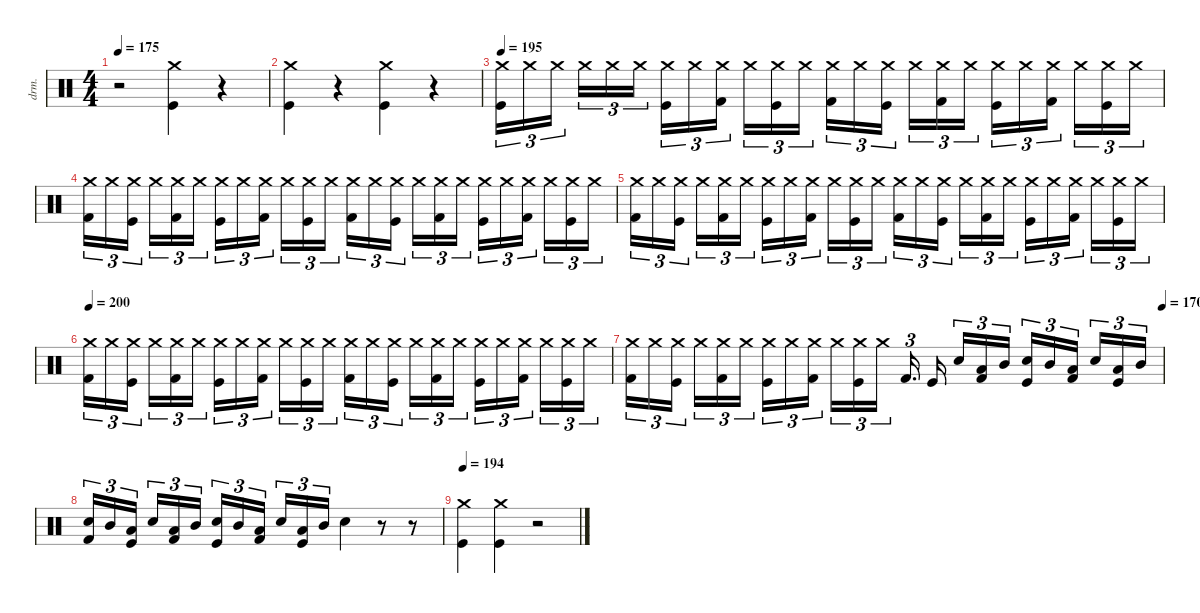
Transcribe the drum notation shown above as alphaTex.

\defaultSystemsLayout 4
\hideDynamics
\bracketExtendMode nobrackets
\otherSystemsTrackNameOrientation horizontal
\track ("Lars Ulrich (Drums)" "drm.") {instrument percussion}
\staff {score}
\articulation defaults
\ts (4 4)
\tempo 175
\clef neutral
\ks c
r.2{dy f beam Down} ("Kick (hit)" "Crash medium (hit)").4{beam Down} r.4{beam Down} |
("Crash medium (hit)" "Kick (hit)").4{beam Down} r.4{beam Down} ("Kick (hit)" "Crash medium (hit)").4{beam Down} r.4{beam Down} |
\tempo 195
("Kick (hit)" "Crash medium (hit)").16{tu (3 2) beam Down} "Crash medium (hit)".16{tu (3 2) beam Down} "Crash medium (hit)".16{tu (3 2) beam Down} "Crash medium (hit)".16{tu (3 2) beam Down} "Crash medium (hit)".16{tu (3 2) beam Down} "Crash medium (hit)".16{tu (3 2) beam Down} ("Kick (hit)" "Crash medium (hit)").16{tu (3 2) beam Down} "Crash medium (hit)".16{tu (3 2) beam Down} ("Kick (hit) 2" "Crash medium (hit)").16{tu (3 2) beam Down} "Crash medium (hit)".16{tu (3 2) beam Down} ("Kick (hit)" "Crash medium (hit)").16{tu (3 2) beam Down} "Crash medium (hit)".16{tu (3 2) beam Down} ("Kick (hit) 2" "Crash medium (hit)").16{tu (3 2) beam Down} "Crash medium (hit)".16{tu (3 2) beam Down} ("Kick (hit)" "Crash medium (hit)").16{tu (3 2) beam Down} "Crash medium (hit)".16{tu (3 2) beam Down} ("Kick (hit) 2" "Crash medium (hit)").16{tu (3 2) beam Down} "Crash medium (hit)".16{tu (3 2) beam Down} ("Kick (hit)" "Crash medium (hit)").16{tu (3 2) beam Down} "Crash medium (hit)".16{tu (3 2) beam Down} ("Kick (hit) 2" "Crash medium (hit)").16{tu (3 2) beam Down} "Crash medium (hit)".16{tu (3 2) beam Down} ("Kick (hit)" "Crash medium (hit)").16{tu (3 2) beam Down} "Crash medium (hit)".16{tu (3 2) beam Down} |
("Kick (hit) 2" "Crash medium (hit)").16{tu (3 2) beam Down} "Crash medium (hit)".16{tu (3 2) beam Down} ("Kick (hit)" "Crash medium (hit)").16{tu (3 2) beam Down} "Crash medium (hit)".16{tu (3 2) beam Down} ("Kick (hit) 2" "Crash medium (hit)").16{tu (3 2) beam Down} "Crash medium (hit)".16{tu (3 2) beam Down} ("Kick (hit)" "Crash medium (hit)").16{tu (3 2) beam Down} "Crash medium (hit)".16{tu (3 2) beam Down} ("Kick (hit) 2" "Crash medium (hit)").16{tu (3 2) beam Down} "Crash medium (hit)".16{tu (3 2) beam Down} ("Kick (hit)" "Crash medium (hit)").16{tu (3 2) beam Down} "Crash medium (hit)".16{tu (3 2) beam Down} ("Kick (hit) 2" "Crash medium (hit)").16{tu (3 2) beam Down} "Crash medium (hit)".16{tu (3 2) beam Down} ("Kick (hit)" "Crash medium (hit)").16{tu (3 2) beam Down} "Crash medium (hit)".16{tu (3 2) beam Down} ("Kick (hit) 2" "Crash medium (hit)").16{tu (3 2) beam Down} "Crash medium (hit)".16{tu (3 2) beam Down} ("Kick (hit)" "Crash medium (hit)").16{tu (3 2) beam Down} "Crash medium (hit)".16{tu (3 2) beam Down} ("Kick (hit) 2" "Crash medium (hit)").16{tu (3 2) beam Down} "Crash medium (hit)".16{tu (3 2) beam Down} ("Kick (hit)" "Crash medium (hit)").16{tu (3 2) beam Down} "Crash medium (hit)".16{tu (3 2) beam Down} |
("Kick (hit) 2" "Crash medium (hit)").16{tu (3 2) beam Down} "Crash medium (hit)".16{tu (3 2) beam Down} ("Kick (hit)" "Crash medium (hit)").16{tu (3 2) beam Down} "Crash medium (hit)".16{tu (3 2) beam Down} ("Kick (hit) 2" "Crash medium (hit)").16{tu (3 2) beam Down} "Crash medium (hit)".16{tu (3 2) beam Down} ("Kick (hit)" "Crash medium (hit)").16{tu (3 2) beam Down} "Crash medium (hit)".16{tu (3 2) beam Down} ("Kick (hit) 2" "Crash medium (hit)").16{tu (3 2) beam Down} "Crash medium (hit)".16{tu (3 2) beam Down} ("Kick (hit)" "Crash medium (hit)").16{tu (3 2) beam Down} "Crash medium (hit)".16{tu (3 2) beam Down} ("Kick (hit) 2" "Crash medium (hit)").16{tu (3 2) beam Down} "Crash medium (hit)".16{tu (3 2) beam Down} ("Kick (hit)" "Crash medium (hit)").16{tu (3 2) beam Down} "Crash medium (hit)".16{tu (3 2) beam Down} ("Kick (hit) 2" "Crash medium (hit)").16{tu (3 2) beam Down} "Crash medium (hit)".16{tu (3 2) beam Down} ("Kick (hit)" "Crash medium (hit)").16{tu (3 2) beam Down} "Crash medium (hit)".16{tu (3 2) beam Down} ("Kick (hit) 2" "Crash medium (hit)").16{tu (3 2) beam Down} "Crash medium (hit)".16{tu (3 2) beam Down} ("Kick (hit)" "Crash medium (hit)").16{tu (3 2) beam Down} "Crash medium (hit)".16{tu (3 2) beam Down} |
\tempo 200
("Kick (hit) 2" "Crash medium (hit)").16{tu (3 2) beam Down} "Crash medium (hit)".16{tu (3 2) beam Down} ("Kick (hit)" "Crash medium (hit)").16{tu (3 2) beam Down} "Crash medium (hit)".16{tu (3 2) beam Down} ("Kick (hit) 2" "Crash medium (hit)").16{tu (3 2) beam Down} "Crash medium (hit)".16{tu (3 2) beam Down} ("Kick (hit)" "Crash medium (hit)").16{tu (3 2) beam Down} "Crash medium (hit)".16{tu (3 2) beam Down} ("Kick (hit) 2" "Crash medium (hit)").16{tu (3 2) beam Down} "Crash medium (hit)".16{tu (3 2) beam Down} ("Kick (hit)" "Crash medium (hit)").16{tu (3 2) beam Down} "Crash medium (hit)".16{tu (3 2) beam Down} ("Kick (hit) 2" "Crash medium (hit)").16{tu (3 2) beam Down} "Crash medium (hit)".16{tu (3 2) beam Down} ("Kick (hit)" "Crash medium (hit)").16{tu (3 2) beam Down} "Crash medium (hit)".16{tu (3 2) beam Down} ("Kick (hit) 2" "Crash medium (hit)").16{tu (3 2) beam Down} "Crash medium (hit)".16{tu (3 2) beam Down} ("Kick (hit)" "Crash medium (hit)").16{tu (3 2) beam Down} "Crash medium (hit)".16{tu (3 2) beam Down} ("Kick (hit) 2" "Crash medium (hit)").16{tu (3 2) beam Down} "Crash medium (hit)".16{tu (3 2) beam Down} ("Kick (hit)" "Crash medium (hit)").16{tu (3 2) beam Down} "Crash medium (hit)".16{tu (3 2) beam Down} |
\tempo (170 1)
("Kick (hit) 2" "Crash medium (hit)").16{tu (3 2) beam Down} "Crash medium (hit)".16{tu (3 2) beam Down} ("Kick (hit)" "Crash medium (hit)").16{tu (3 2) beam Down} "Crash medium (hit)".16{tu (3 2) beam Down} ("Kick (hit) 2" "Crash medium (hit)").16{tu (3 2) beam Down} "Crash medium (hit)".16{tu (3 2) beam Down} ("Kick (hit)" "Crash medium (hit)").16{tu (3 2) beam Down} "Crash medium (hit)".16{tu (3 2) beam Down} ("Kick (hit) 2" "Crash medium (hit)").16{tu (3 2) beam Down} "Crash medium (hit)".16{tu (3 2) beam Down} ("Kick (hit)" "Crash medium (hit)").16{tu (3 2) beam Down} "Crash medium (hit)".16{tu (3 2) beam Down} "Kick (hit) 2".16{d tu (3 2) beam Up} "Kick (hit)".16{beam Up} "Snare (hit) 2".16{tu (3 2) beam Up} ("Low Tom (hit)" "Kick (hit) 2").16{tu (3 2) beam Up} "Mid Tom (hit)".16{tu (3 2) beam Up} ("Snare (hit) 2" "Kick (hit)").16{tu (3 2) beam Up} "Mid Tom (hit)".16{tu (3 2) beam Up} ("Low Tom (hit)" "Kick (hit) 2").16{tu (3 2) beam Up} "Snare (hit) 2".16{tu (3 2) beam Up} ("Low Tom (hit)" "Kick (hit)").16{tu (3 2) beam Up} "Mid Tom (hit)".16{tu (3 2) beam Up} |
("Snare (hit) 2" "Kick (hit) 2").16{tu (3 2) beam Up} "Mid Tom (hit)".16{tu (3 2) beam Up} ("Low Tom (hit)" "Kick (hit)").16{tu (3 2) beam Up} "Snare (hit) 2".16{tu (3 2) beam Up} ("Low Tom (hit)" "Kick (hit) 2").16{tu (3 2) beam Up} "Mid Tom (hit)".16{tu (3 2) beam Up} ("Snare (hit) 2" "Kick (hit)").16{tu (3 2) beam Up} "Mid Tom (hit)".16{tu (3 2) beam Up} ("Low Tom (hit)" "Kick (hit) 2").16{tu (3 2) beam Up} "Snare (hit) 2".16{tu (3 2) beam Up} ("Low Tom (hit)" "Kick (hit)").16{tu (3 2) beam Up} "Mid Tom (hit)".16{tu (3 2) beam Up} "Snare (hit) 2".4{beam Down} r.8{beam Down} r.8{beam Down} |
\tempo 194
("Kick (hit)" "Crash medium (hit)").4{beam Down} ("Kick (hit)" "Crash medium (hit)").4{beam Down} r.2{beam Down}
